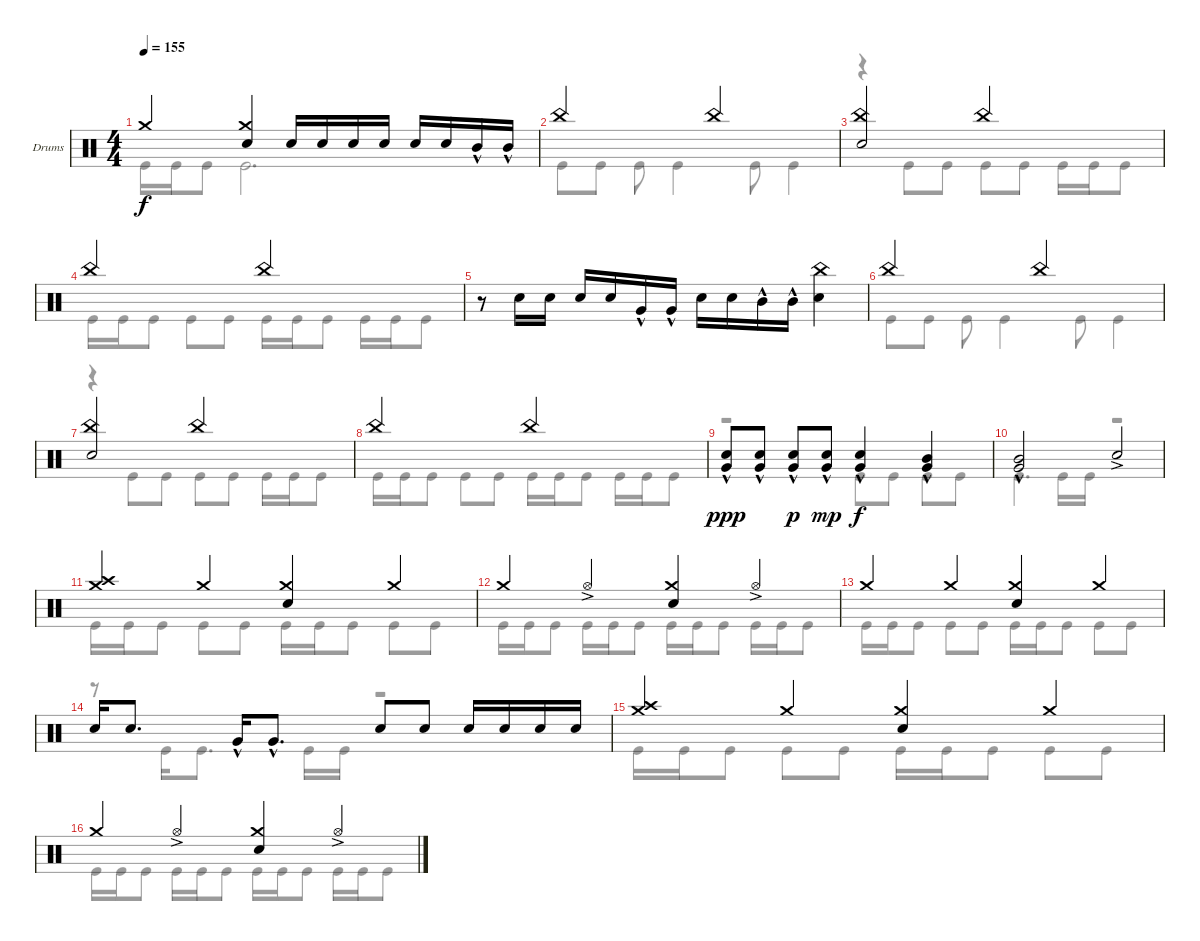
\defaultSystemsLayout 4
\bracketExtendMode groupsimilarinstruments
\firstSystemTrackNameOrientation horizontal
\otherSystemsTrackNameOrientation horizontal
\track ("Drumkit" "Drums") {instrument percussion}
\staff {score}
\articulation defaults
\voice
\ts (4 4)
\tempo 155
\clef neutral
\scale
1.02648
\ks c "Crash medium (hit)".4{dy f}
("Crash medium (hit)" "Snare (hit) 2").4 "Snare (hit) 2".16 "Snare (hit) 2".16 "Snare (hit) 2".16 "Snare (hit) 2".16 "Snare (hit) 2".16 "Snare (hit) 2".16 "Mid Tom (hit)"{hac}.16 "Mid Tom (hit)"{hac}.16 |
\scale
0.973518 "China (hit)".2 "China (hit)".2 |
\scale
1.02648 ("China (hit)" "Snare (hit) 2").2 "China (hit)".2 |
\scale
0.973518 "China (hit)".2 "China (hit)".2 |
\scale
1.02648 r.8 "Snare (hit) 2".16 "Snare (hit) 2".16 "Snare (hit) 2".16 "Snare (hit) 2".16 "Very Low Tom (hit)"{hac}.16 "Very Low Tom (hit)"{hac}.16 "Snare (hit) 2".16 "Snare (hit) 2".16 "Mid Tom (hit)"{hac}.16 "Mid Tom (hit)"{hac}.16 ("Snare (hit) 2" "China (hit)").4 |
\scale
0.973518 "China (hit)".2 "China (hit)".2 |
\scale
1.02648 ("China (hit)" "Snare (hit) 2").2 "China (hit)".2 |
\scale
0.973518 "China (hit)".2 "China (hit)".2 |
\scale
1.02648 ("Snare (hit) 2" "Very Low Tom (hit)"{hac}).8{dy ppp} ("Snare (hit) 2" "Very Low Tom (hit)"{hac}).8 ("Snare (hit) 2" "Very Low Tom (hit)"{hac}).8{dy p} ("Snare (hit) 2" "Very Low Tom (hit)"{hac}).8{dy mp} ("Snare (hit) 2" "Very Low Tom (hit)"{hac}).4{dy f} ("Very Low Tom (hit)"{hac} "Mid Tom (hit)"{hac}).4 |
\scale
0.973518 ("Very Low Tom (hit)"{hac} "Mid Tom (hit)"{hac}).2 "Snare (hit) 2"{ac}.2 |
\scale
1.02648 ("Crash high (hit)" "Crash medium (hit)").4 "Crash medium (hit)".4 ("Crash medium (hit)" "Snare (hit) 2").4 "Crash medium (hit)".4 |
\scale
0.973518 "Crash medium (hit)".4 "Hi-Hat (open)"{ac}.4 ("Crash medium (hit)" "Snare (hit) 2").4 "Hi-Hat (open)"{ac}.4 |
\scale
1.02648 "Crash medium (hit)".4 "Crash medium (hit)".4 ("Crash medium (hit)" "Snare (hit) 2").4 "Crash medium (hit)".4 |
\scale
0.973518 "Snare (hit) 2".16 "Snare (hit) 2".8{d} "Very Low Tom (hit)"{hac}.16 "Very Low Tom (hit)"{hac}.8{d} "Snare (hit) 2".8 "Snare (hit) 2".8 "Snare (hit) 2".16 "Snare (hit) 2".16 "Snare (hit) 2".16 "Snare (hit) 2".16 |
\scale
1.02648 ("Crash high (hit)" "Crash medium (hit)").4 "Crash medium (hit)".4 ("Crash medium (hit)" "Snare (hit) 2").4 "Crash medium (hit)".4 |
\scale
0.973518 "Crash medium (hit)".4 "Hi-Hat (open)"{ac}.4 ("Crash medium (hit)" "Snare (hit) 2").4 "Hi-Hat (open)"{ac}.4
\voice
\clef neutral
\ottava regular
\simile none
\scale
1.02648
\ks c "Kick (hit)".16{dy f} "Kick (hit)".16 "Kick (hit)".8 "Kick (hit)".2{d}
|
\scale
0.973518 "Kick (hit)".8 "Kick (hit)".8 "Kick (hit)".8 "Kick (hit)".4 "Kick (hit)".8 "Kick (hit)".4 |
\scale
1.02648 r.4 "Kick (hit)".8 "Kick (hit)".8 "Kick (hit)".8 "Kick (hit)".8 "Kick (hit)".16 "Kick (hit)".16 "Kick (hit)".8 |
\scale
0.973518 "Kick (hit)".16 "Kick (hit)".16 "Kick (hit)".8 "Kick (hit)".8 "Kick (hit)".8 "Kick (hit)".16 "Kick (hit)".16 "Kick (hit)".8 "Kick (hit)".16 "Kick (hit)".16 "Kick (hit)".8 |
\scale
1.02648 |
\scale
0.973518 "Kick (hit)".8 "Kick (hit)".8 "Kick (hit)".8 "Kick (hit)".4 "Kick (hit)".8 "Kick (hit)".4 |
\scale
1.02648 r.4 "Kick (hit)".8 "Kick (hit)".8 "Kick (hit)".8 "Kick (hit)".8 "Kick (hit)".16 "Kick (hit)".16 "Kick (hit)".8 |
\scale
0.973518 "Kick (hit)".16 "Kick (hit)".16 "Kick (hit)".8 "Kick (hit)".8 "Kick (hit)".8 "Kick (hit)".16 "Kick (hit)".16 "Kick (hit)".8 "Kick (hit)".16 "Kick (hit)".16 "Kick (hit)".8 |
\scale
1.02648 r.2 "Kick (hit)".8 "Kick (hit)".8 "Kick (hit)".8 "Kick (hit)".8 |
\scale
0.973518 "Kick (hit)".4{d} "Kick (hit)".16 "Kick (hit)".16 r.2 |
\scale
1.02648 "Kick (hit)".16 "Kick (hit)".16 "Kick (hit)".8 "Kick (hit)".8 "Kick (hit)".8 "Kick (hit)".16 "Kick (hit)".16 "Kick (hit)".8 "Kick (hit)".8 "Kick (hit)".8 |
\scale
0.973518 "Kick (hit)".16 "Kick (hit)".16 "Kick (hit)".8 "Kick (hit)".16 "Kick (hit)".16 "Kick (hit)".8 "Kick (hit)".16 "Kick (hit)".16 "Kick (hit)".8 "Kick (hit)".16 "Kick (hit)".16 "Kick (hit)".8 |
\scale
1.02648 "Kick (hit)".16 "Kick (hit)".16 "Kick (hit)".8 "Kick (hit)".8 "Kick (hit)".8 "Kick (hit)".16 "Kick (hit)".16 "Kick (hit)".8 "Kick (hit)".8 "Kick (hit)".8 |
\scale
0.973518 r.8 "Kick (hit)".16 "Kick (hit)".8{d} "Kick (hit)".16 "Kick (hit)".16 r.2 |
\scale
1.02648 "Kick (hit)".16 "Kick (hit)".16 "Kick (hit)".8 "Kick (hit)".8 "Kick (hit)".8 "Kick (hit)".16 "Kick (hit)".16 "Kick (hit)".8 "Kick (hit)".8 "Kick (hit)".8 |
\scale
0.973518 "Kick (hit)".16 "Kick (hit)".16 "Kick (hit)".8 "Kick (hit)".16 "Kick (hit)".16 "Kick (hit)".8 "Kick (hit)".16 "Kick (hit)".16 "Kick (hit)".8 "Kick (hit)".16 "Kick (hit)".16 "Kick (hit)".8
